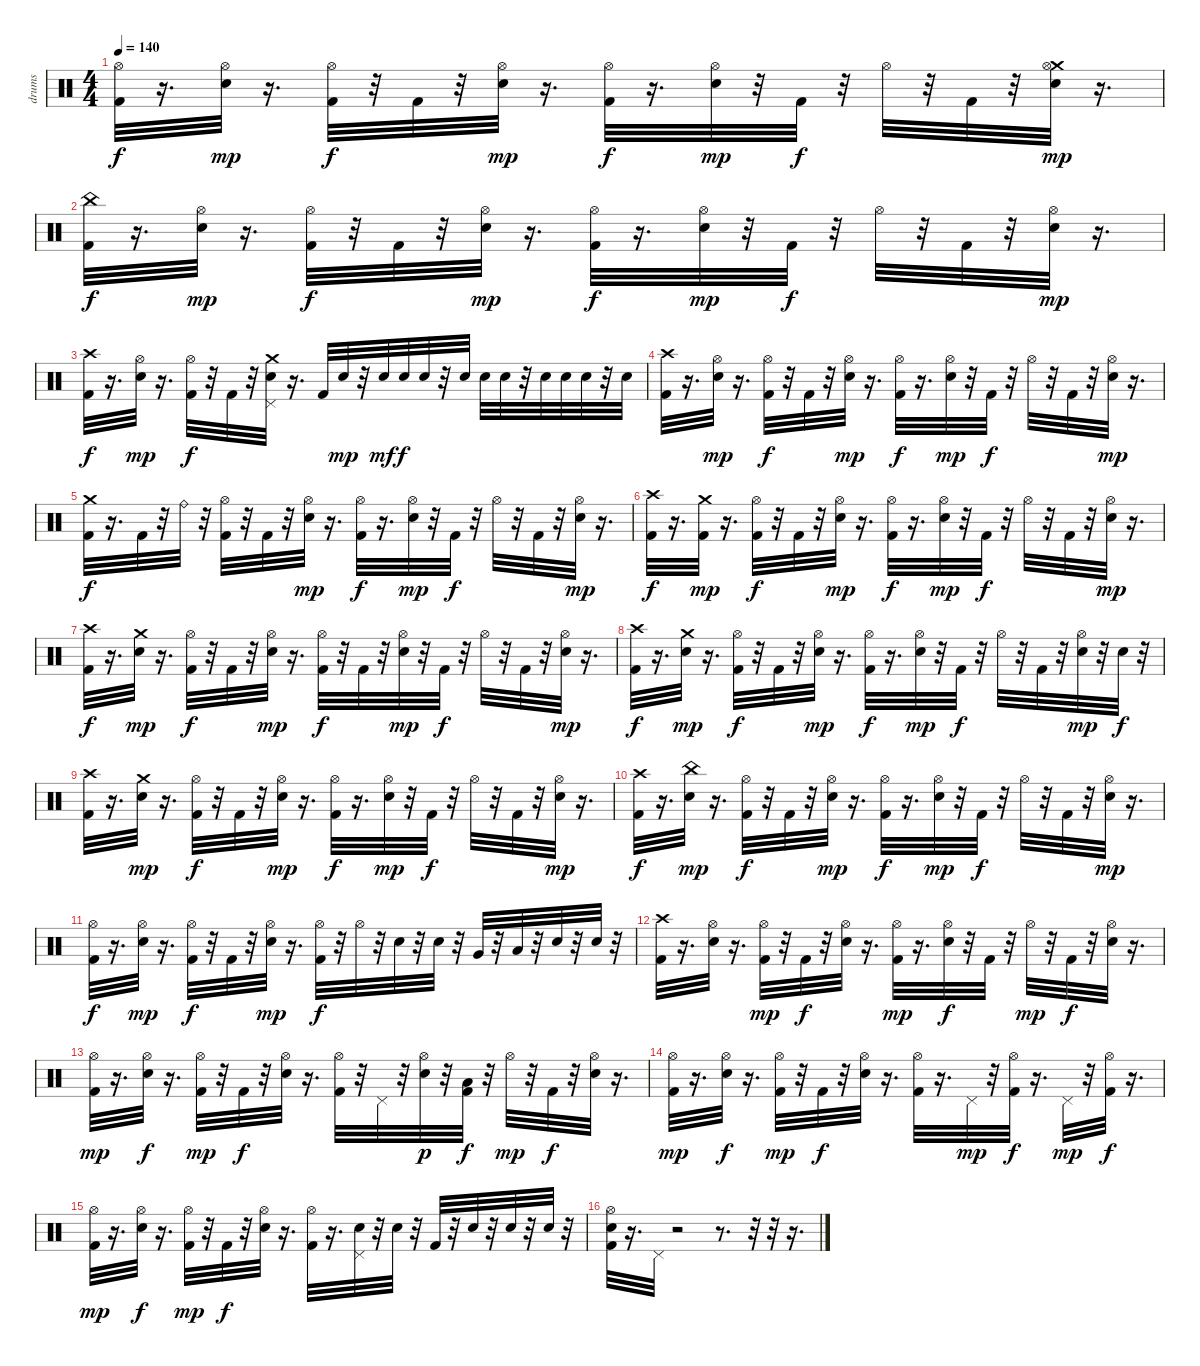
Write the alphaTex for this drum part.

\track ("drums" "drums") {instrument percussion}
\staff {score}
\articulation defaults
\ts (4 4)
\tempo 140
\clef neutral
\ks c
("Hi-Hat (open)" "Kick (hit) 2").32{dy f} r.16{d} ("Hi-Hat (open)" "Electric Snare (hit)").32{dy mp} r.16{d} ("Hi-Hat (open)" "Kick (hit) 2").32{dy f} r.32 "Kick (hit) 2".32 r.32 ("Hi-Hat (open)" "Electric Snare (hit)").32{dy mp} r.16{d} ("Hi-Hat (open)" "Kick (hit) 2").32{dy f} r.16{d} ("Hi-Hat (open)" "Electric Snare (hit)").32{dy mp} r.32 "Kick (hit) 2".32{dy f} r.32 "Hi-Hat (open)".32 r.32 "Kick (hit) 2".32 r.32 ("Crash medium (hit)" "Hi-Hat (open)" "Electric Snare (hit)").32{dy mp} r.16{d} |
("China (hit)" "Kick (hit) 2").32{dy f} r.16{d} ("Hi-Hat (open)" "Electric Snare (hit)").32{dy mp} r.16{d} ("Hi-Hat (open)" "Kick (hit) 2").32{dy f} r.32 "Kick (hit) 2".32 r.32 ("Hi-Hat (open)" "Electric Snare (hit)").32{dy mp} r.16{d} ("Hi-Hat (open)" "Kick (hit) 2").32{dy f} r.16{d} ("Hi-Hat (open)" "Electric Snare (hit)").32{dy mp} r.32 "Kick (hit) 2".32{dy f} r.32 "Hi-Hat (open)".32 r.32 "Kick (hit) 2".32 r.32 ("Hi-Hat (open)" "Electric Snare (hit)").32{dy mp} r.16{d} |
("Crash high (hit)" "Kick (hit) 2").32{dy f} r.16{d} ("Hi-Hat (open)" "Electric Snare (hit)").32{dy mp} r.16{d} ("Hi-Hat (open)" "Kick (hit) 2").32{dy f} r.32 "Kick (hit) 2".32 r.32 ("Pedal Hi-Hat (hit)" "Crash medium (hit)" "Electric Snare (hit)").32 r.16{d} "Kick (hit) 2".32 "Electric Snare (hit)".32{dy mp} r.32 "Electric Snare (hit)".32{dy mf} "Electric Snare (hit)".32{dy f} "Electric Snare (hit)".32 r.32 "Electric Snare (hit)".32 "Electric Snare (hit)".32 "Electric Snare (hit)".32 r.32 "Electric Snare (hit)".32 "Electric Snare (hit)".32 "Electric Snare (hit)".32 r.32 "Electric Snare (hit)".32 |
("Crash high (hit)" "Kick (hit) 2").32 r.16{d} ("Hi-Hat (open)" "Electric Snare (hit)").32{dy mp} r.16{d} ("Hi-Hat (open)" "Kick (hit) 2").32{dy f} r.32 "Kick (hit) 2".32 r.32 ("Hi-Hat (open)" "Electric Snare (hit)").32{dy mp} r.16{d} ("Hi-Hat (open)" "Kick (hit) 2").32{dy f} r.16{d} ("Hi-Hat (open)" "Electric Snare (hit)").32{dy mp} r.32 "Kick (hit) 2".32{dy f} r.32 "Hi-Hat (open)".32 r.32 "Kick (hit) 2".32 r.32 ("Hi-Hat (open)" "Electric Snare (hit)").32{dy mp} r.16{d} |
("Crash medium (hit)" "Kick (hit) 2").32{dy f} r.16{d} "Kick (hit) 2".32 r.32 "Ride (bell)".32 r.32 ("Hi-Hat (open)" "Kick (hit) 2").32 r.32 "Kick (hit) 2".32 r.32 ("Hi-Hat (open)" "Electric Snare (hit)").32{dy mp} r.16{d} ("Hi-Hat (open)" "Kick (hit) 2").32{dy f} r.16{d} ("Hi-Hat (open)" "Electric Snare (hit)").32{dy mp} r.32 "Kick (hit) 2".32{dy f} r.32 "Hi-Hat (open)".32 r.32 "Kick (hit) 2".32 r.32 ("Hi-Hat (open)" "Electric Snare (hit)").32{dy mp} r.16{d} |
("Crash high (hit)" "Kick (hit) 2").32{dy f} r.16{d} ("Crash medium (hit)" "Kick (hit) 2").32{dy mp} r.16{d} ("Hi-Hat (open)" "Kick (hit) 2").32{dy f} r.32 "Kick (hit) 2".32 r.32 ("Hi-Hat (open)" "Electric Snare (hit)").32{dy mp} r.16{d} ("Hi-Hat (open)" "Kick (hit) 2").32{dy f} r.16{d} ("Hi-Hat (open)" "Electric Snare (hit)").32{dy mp} r.32 "Kick (hit) 2".32{dy f} r.32 "Hi-Hat (open)".32 r.32 "Kick (hit) 2".32 r.32 ("Hi-Hat (open)" "Electric Snare (hit)").32{dy mp} r.16{d} |
("Crash high (hit)" "Kick (hit) 2").32{dy f} r.16{d} ("Crash medium (hit)" "Electric Snare (hit)").32{dy mp} r.16{d} ("Hi-Hat (open)" "Kick (hit) 2").32{dy f} r.32 "Kick (hit) 2".32 r.32 ("Hi-Hat (open)" "Electric Snare (hit)").32{dy mp} r.16{d} ("Hi-Hat (open)" "Kick (hit) 2").32{dy f} r.32 "Kick (hit) 2".32 r.32 ("Hi-Hat (open)" "Electric Snare (hit)").32{dy mp} r.32 "Kick (hit) 2".32{dy f} r.32 "Hi-Hat (open)".32 r.32 "Kick (hit) 2".32 r.32 ("Hi-Hat (open)" "Electric Snare (hit)").32{dy mp} r.16{d} |
("Crash high (hit)" "Kick (hit) 2").32{dy f} r.16{d} ("Crash medium (hit)" "Electric Snare (hit)").32{dy mp} r.16{d} ("Hi-Hat (open)" "Kick (hit) 2").32{dy f} r.32 "Kick (hit) 2".32 r.32 ("Hi-Hat (open)" "Electric Snare (hit)").32{dy mp} r.16{d} ("Hi-Hat (open)" "Kick (hit) 2").32{dy f} r.16{d} ("Hi-Hat (open)" "Electric Snare (hit)").32{dy mp} r.32 "Kick (hit) 2".32{dy f} r.32 "Hi-Hat (open)".32 r.32 "Kick (hit) 2".32 r.32 ("Electric Snare (hit)" "Hi-Hat (open)").32{dy mp} r.32 "Electric Snare (hit)".32{dy f} r.32 |
("Crash high (hit)" "Kick (hit) 2").32 r.16{d} ("Crash medium (hit)" "Electric Snare (hit)").32{dy mp} r.16{d} ("Hi-Hat (open)" "Kick (hit) 2").32{dy f} r.32 "Kick (hit) 2".32 r.32 ("Hi-Hat (open)" "Electric Snare (hit)").32{dy mp} r.16{d} ("Hi-Hat (open)" "Kick (hit) 2").32{dy f} r.16{d} ("Electric Snare (hit)" "Hi-Hat (open)").32{dy mp} r.32 "Kick (hit) 2".32{dy f} r.32 "Hi-Hat (open)".32 r.32 "Kick (hit) 2".32 r.32 ("Electric Snare (hit)" "Hi-Hat (open)").32{dy mp} r.16{d} |
("Crash high (hit)" "Kick (hit) 2").32{dy f} r.16{d} ("China (hit)" "Electric Snare (hit)").32{dy mp} r.16{d} ("Hi-Hat (open)" "Kick (hit) 2").32{dy f} r.32 "Kick (hit) 2".32 r.32 ("Hi-Hat (open)" "Electric Snare (hit)").32{dy mp} r.16{d} ("Hi-Hat (open)" "Kick (hit) 2").32{dy f} r.16{d} ("Hi-Hat (open)" "Electric Snare (hit)").32{dy mp} r.32 "Kick (hit) 2".32{dy f} r.32 "Hi-Hat (open)".32 r.32 "Kick (hit) 2".32 r.32 ("Hi-Hat (open)" "Electric Snare (hit)").32{dy mp} r.16{d} |
("Hi-Hat (open)" "Kick (hit) 2").32{dy f} r.16{d} ("Hi-Hat (open)" "Electric Snare (hit)").32{dy mp} r.16{d} ("Hi-Hat (open)" "Kick (hit) 2").32{dy f} r.32 "Kick (hit) 2".32 r.32 ("Hi-Hat (open)" "Electric Snare (hit)").32{dy mp} r.16{d} ("Kick (hit) 2" "Hi-Hat (open)").32{dy f} r.32 "Hi-Hat (open)".32 r.32 "Electric Snare (hit)".32 r.32 "Electric Snare (hit)".32 r.32 "Very Low Tom (hit)".32 r.32 "Low Floor Tom (hit)".32 r.32 "Electric Snare (hit)".32 r.32 "Electric Snare (hit)".32 r.32 |
("Crash high (hit)" "Kick (hit) 2").32 r.16{d} ("Hi-Hat (open)" "Electric Snare (hit)").32 r.16{d} ("Hi-Hat (open)" "Kick (hit) 2").32{dy mp} r.32 "Kick (hit) 2".32{dy f} r.32 ("Hi-Hat (open)" "Electric Snare (hit)").32 r.16{d} ("Hi-Hat (open)" "Kick (hit) 2").32{dy mp} r.16{d} ("Hi-Hat (open)" "Electric Snare (hit)").32{dy f} r.32 "Kick (hit) 2".32 r.32 "Hi-Hat (open)".32{dy mp} r.32 "Kick (hit) 2".32{dy f} r.32 ("Hi-Hat (open)" "Electric Snare (hit)").32 r.16{d} |
("Hi-Hat (open)" "Kick (hit) 2").32{dy mp} r.16{d} ("Hi-Hat (open)" "Electric Snare (hit)").32{dy f} r.16{d} ("Hi-Hat (open)" "Kick (hit) 2").32{dy mp} r.32 "Kick (hit) 2".32{dy f} r.32 ("Hi-Hat (open)" "Electric Snare (hit)").32 r.16{d} ("Hi-Hat (open)" "Kick (hit) 2").32 r.32 "Pedal Hi-Hat (hit)".32 r.32 ("Hi-Hat (open)" "Electric Snare (hit)").32{dy p} r.32 ("Low Floor Tom (hit)" "Kick (hit) 2").32{dy f} r.32 "Hi-Hat (open)".32{dy mp} r.32 "Kick (hit) 2".32{dy f} r.32 ("Hi-Hat (open)" "Electric Snare (hit)").32 r.16{d} |
("Hi-Hat (open)" "Kick (hit) 2").32{dy mp} r.16{d} ("Hi-Hat (open)" "Electric Snare (hit)").32{dy f} r.16{d} ("Hi-Hat (open)" "Kick (hit) 2").32{dy mp} r.32 "Kick (hit) 2".32{dy f} r.32 ("Hi-Hat (open)" "Electric Snare (hit)").32 r.16{d} ("Hi-Hat (open)" "Kick (hit) 2").32 r.16{d} "Pedal Hi-Hat (hit)".32{dy mp} r.32 ("Hi-Hat (open)" "Kick (hit) 2").32{dy f} r.16{d} "Pedal Hi-Hat (hit)".32{dy mp} r.32 ("Hi-Hat (open)" "Kick (hit) 2").32{dy f} r.16{d} |
("Hi-Hat (open)" "Kick (hit) 2").32{dy mp} r.16{d} ("Hi-Hat (open)" "Electric Snare (hit)").32{dy f} r.16{d} ("Hi-Hat (open)" "Kick (hit) 2").32{dy mp} r.32 "Kick (hit) 2".32{dy f} r.32 ("Hi-Hat (open)" "Electric Snare (hit)").32 r.16{d} ("Hi-Hat (open)" "Kick (hit) 2").32 r.16{d} ("Pedal Hi-Hat (hit)" "Electric Snare (hit)").32 r.32 "Electric Snare (hit)".32 r.32 "Kick (hit) 2".32 r.32 "Electric Snare (hit)".32 r.32 "Electric Snare (hit)".32 r.32 "Electric Snare (hit)".32 r.32 |
("Electric Snare (hit)" "Kick (hit) 2" "Hi-Hat (open)").32 r.16{d} "Pedal Hi-Hat (hit)".32 r.2 r.8{d} r.32 r.32 r.16{d}
